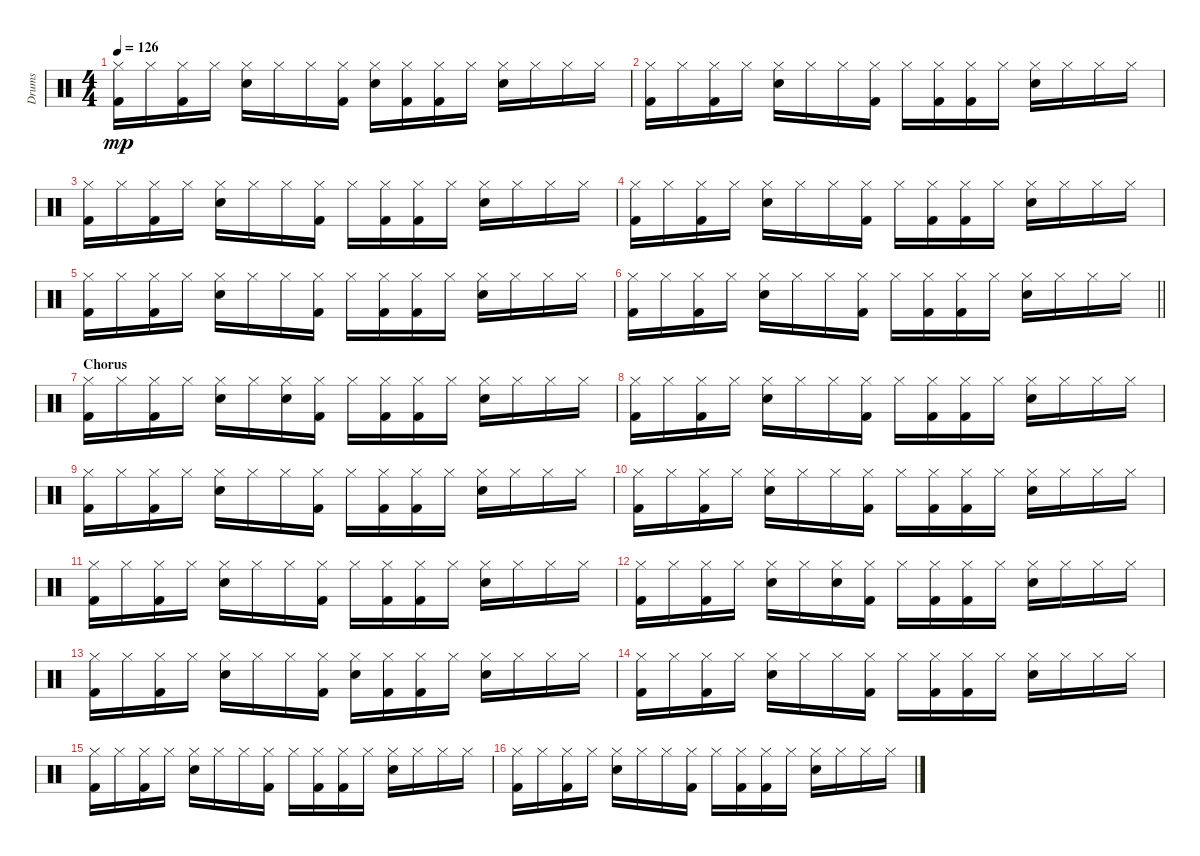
\track ("Drums" "Drums") {instrument percussion}
\staff {score}
\articulation defaults
\ts (4 4)
\tempo 126
\clef neutral
\ks c
("Hi-Hat (closed)" "Kick (hit) 2").16{dy mp} "Hi-Hat (closed)".16 ("Hi-Hat (closed)" "Kick (hit) 2").16 "Hi-Hat (closed)".16 ("Hi-Hat (closed)" "Snare (hit) 2").16 "Hi-Hat (closed)".16 "Hi-Hat (closed)".16 ("Hi-Hat (closed)" "Kick (hit) 2").16 ("Hi-Hat (closed)" "Snare (hit) 2").16 ("Hi-Hat (closed)" "Kick (hit) 2").16 ("Hi-Hat (closed)" "Kick (hit) 2").16 "Hi-Hat (closed)".16 ("Hi-Hat (closed)" "Snare (hit) 2").16 "Hi-Hat (closed)".16 "Hi-Hat (closed)".16 "Hi-Hat (closed)".16 |
("Hi-Hat (closed)" "Kick (hit) 2").16 "Hi-Hat (closed)".16 ("Hi-Hat (closed)" "Kick (hit) 2").16 "Hi-Hat (closed)".16 ("Hi-Hat (closed)" "Snare (hit) 2").16 "Hi-Hat (closed)".16 "Hi-Hat (closed)".16 ("Hi-Hat (closed)" "Kick (hit) 2").16 "Hi-Hat (closed)".16 ("Hi-Hat (closed)" "Kick (hit) 2").16 ("Hi-Hat (closed)" "Kick (hit) 2").16 "Hi-Hat (closed)".16 ("Hi-Hat (closed)" "Snare (hit) 2").16 "Hi-Hat (closed)".16 "Hi-Hat (closed)".16 "Hi-Hat (closed)".16 |
("Hi-Hat (closed)" "Kick (hit) 2").16 "Hi-Hat (closed)".16 ("Hi-Hat (closed)" "Kick (hit) 2").16 "Hi-Hat (closed)".16 ("Hi-Hat (closed)" "Snare (hit) 2").16 "Hi-Hat (closed)".16 "Hi-Hat (closed)".16 ("Hi-Hat (closed)" "Kick (hit) 2").16 "Hi-Hat (closed)".16 ("Hi-Hat (closed)" "Kick (hit) 2").16 ("Hi-Hat (closed)" "Kick (hit) 2").16 "Hi-Hat (closed)".16 ("Hi-Hat (closed)" "Snare (hit) 2").16 "Hi-Hat (closed)".16 "Hi-Hat (closed)".16 "Hi-Hat (closed)".16 |
("Hi-Hat (closed)" "Kick (hit) 2").16 "Hi-Hat (closed)".16 ("Hi-Hat (closed)" "Kick (hit) 2").16 "Hi-Hat (closed)".16 ("Hi-Hat (closed)" "Snare (hit) 2").16 "Hi-Hat (closed)".16 "Hi-Hat (closed)".16 ("Hi-Hat (closed)" "Kick (hit) 2").16 "Hi-Hat (closed)".16 ("Hi-Hat (closed)" "Kick (hit) 2").16 ("Hi-Hat (closed)" "Kick (hit) 2").16 "Hi-Hat (closed)".16 ("Hi-Hat (closed)" "Snare (hit) 2").16 "Hi-Hat (closed)".16 "Hi-Hat (closed)".16 "Hi-Hat (closed)".16 |
("Hi-Hat (closed)" "Kick (hit) 2").16 "Hi-Hat (closed)".16 ("Hi-Hat (closed)" "Kick (hit) 2").16 "Hi-Hat (closed)".16 ("Hi-Hat (closed)" "Snare (hit) 2").16 "Hi-Hat (closed)".16 "Hi-Hat (closed)".16 ("Hi-Hat (closed)" "Kick (hit) 2").16 "Hi-Hat (closed)".16 ("Hi-Hat (closed)" "Kick (hit) 2").16 ("Hi-Hat (closed)" "Kick (hit) 2").16 "Hi-Hat (closed)".16 ("Hi-Hat (closed)" "Snare (hit) 2").16 "Hi-Hat (closed)".16 "Hi-Hat (closed)".16 "Hi-Hat (closed)".16 |
\barLineRight lightlight
("Hi-Hat (closed)" "Kick (hit) 2").16 "Hi-Hat (closed)".16 ("Hi-Hat (closed)" "Kick (hit) 2").16 "Hi-Hat (closed)".16 ("Hi-Hat (closed)" "Snare (hit) 2").16 "Hi-Hat (closed)".16 "Hi-Hat (closed)".16 ("Hi-Hat (closed)" "Kick (hit) 2").16 "Hi-Hat (closed)".16 ("Hi-Hat (closed)" "Kick (hit) 2").16 ("Hi-Hat (closed)" "Kick (hit) 2").16 "Hi-Hat (closed)".16 ("Hi-Hat (closed)" "Snare (hit) 2").16 "Hi-Hat (closed)".16 "Hi-Hat (closed)".16 "Hi-Hat (closed)".16 |
\section ("" "Chorus")
("Hi-Hat (closed)" "Kick (hit) 2").16 "Hi-Hat (closed)".16 ("Hi-Hat (closed)" "Kick (hit) 2").16 "Hi-Hat (closed)".16 ("Hi-Hat (closed)" "Snare (hit) 2").16 "Hi-Hat (closed)".16 ("Hi-Hat (closed)" "Snare (hit) 2").16 ("Hi-Hat (closed)" "Kick (hit) 2").16 "Hi-Hat (closed)".16 ("Hi-Hat (closed)" "Kick (hit) 2").16 ("Hi-Hat (closed)" "Kick (hit) 2").16 "Hi-Hat (closed)".16 ("Hi-Hat (closed)" "Snare (hit) 2").16 "Hi-Hat (closed)".16 "Hi-Hat (closed)".16 "Hi-Hat (closed)".16 |
("Hi-Hat (closed)" "Kick (hit) 2").16 "Hi-Hat (closed)".16 ("Hi-Hat (closed)" "Kick (hit) 2").16 "Hi-Hat (closed)".16 ("Hi-Hat (closed)" "Snare (hit) 2").16 "Hi-Hat (closed)".16 "Hi-Hat (closed)".16 ("Hi-Hat (closed)" "Kick (hit) 2").16 "Hi-Hat (closed)".16 ("Hi-Hat (closed)" "Kick (hit) 2").16 ("Hi-Hat (closed)" "Kick (hit) 2").16 "Hi-Hat (closed)".16 ("Hi-Hat (closed)" "Snare (hit) 2").16 "Hi-Hat (closed)".16 "Hi-Hat (closed)".16 "Hi-Hat (closed)".16 |
("Hi-Hat (closed)" "Kick (hit) 2").16 "Hi-Hat (closed)".16 ("Hi-Hat (closed)" "Kick (hit) 2").16 "Hi-Hat (closed)".16 ("Hi-Hat (closed)" "Snare (hit) 2").16 "Hi-Hat (closed)".16 "Hi-Hat (closed)".16 ("Hi-Hat (closed)" "Kick (hit) 2").16 "Hi-Hat (closed)".16 ("Hi-Hat (closed)" "Kick (hit) 2").16 ("Hi-Hat (closed)" "Kick (hit) 2").16 "Hi-Hat (closed)".16 ("Hi-Hat (closed)" "Snare (hit) 2").16 "Hi-Hat (closed)".16 "Hi-Hat (closed)".16 "Hi-Hat (closed)".16 |
("Hi-Hat (closed)" "Kick (hit) 2").16 "Hi-Hat (closed)".16 ("Hi-Hat (closed)" "Kick (hit) 2").16 "Hi-Hat (closed)".16 ("Hi-Hat (closed)" "Snare (hit) 2").16 "Hi-Hat (closed)".16 "Hi-Hat (closed)".16 ("Hi-Hat (closed)" "Kick (hit) 2").16 "Hi-Hat (closed)".16 ("Hi-Hat (closed)" "Kick (hit) 2").16 ("Hi-Hat (closed)" "Kick (hit) 2").16 "Hi-Hat (closed)".16 ("Hi-Hat (closed)" "Snare (hit) 2").16 "Hi-Hat (closed)".16 "Hi-Hat (closed)".16 "Hi-Hat (closed)".16 |
("Hi-Hat (closed)" "Kick (hit) 2").16 "Hi-Hat (closed)".16 ("Hi-Hat (closed)" "Kick (hit) 2").16 "Hi-Hat (closed)".16 ("Hi-Hat (closed)" "Snare (hit) 2").16 "Hi-Hat (closed)".16 "Hi-Hat (closed)".16 ("Hi-Hat (closed)" "Kick (hit) 2").16 "Hi-Hat (closed)".16 ("Hi-Hat (closed)" "Kick (hit) 2").16 ("Hi-Hat (closed)" "Kick (hit) 2").16 "Hi-Hat (closed)".16 ("Hi-Hat (closed)" "Snare (hit) 2").16 "Hi-Hat (closed)".16 "Hi-Hat (closed)".16 "Hi-Hat (closed)".16 |
("Hi-Hat (closed)" "Kick (hit) 2").16 "Hi-Hat (closed)".16 ("Hi-Hat (closed)" "Kick (hit) 2").16 "Hi-Hat (closed)".16 ("Hi-Hat (closed)" "Snare (hit) 2").16 "Hi-Hat (closed)".16 ("Hi-Hat (closed)" "Snare (hit) 2").16 ("Hi-Hat (closed)" "Kick (hit) 2").16 "Hi-Hat (closed)".16 ("Hi-Hat (closed)" "Kick (hit) 2").16 ("Hi-Hat (closed)" "Kick (hit) 2").16 "Hi-Hat (closed)".16 ("Hi-Hat (closed)" "Snare (hit) 2").16 "Hi-Hat (closed)".16 "Hi-Hat (closed)".16 "Hi-Hat (closed)".16 |
("Hi-Hat (closed)" "Kick (hit) 2").16 "Hi-Hat (closed)".16 ("Hi-Hat (closed)" "Kick (hit) 2").16 "Hi-Hat (closed)".16 ("Hi-Hat (closed)" "Snare (hit) 2").16 "Hi-Hat (closed)".16 "Hi-Hat (closed)".16 ("Hi-Hat (closed)" "Kick (hit) 2").16 ("Hi-Hat (closed)" "Snare (hit) 2").16 ("Hi-Hat (closed)" "Kick (hit) 2").16 ("Hi-Hat (closed)" "Kick (hit) 2").16 "Hi-Hat (closed)".16 ("Hi-Hat (closed)" "Snare (hit) 2").16 "Hi-Hat (closed)".16 "Hi-Hat (closed)".16 "Hi-Hat (closed)".16 |
("Hi-Hat (closed)" "Kick (hit) 2").16 "Hi-Hat (closed)".16 ("Hi-Hat (closed)" "Kick (hit) 2").16 "Hi-Hat (closed)".16 ("Hi-Hat (closed)" "Snare (hit) 2").16 "Hi-Hat (closed)".16 "Hi-Hat (closed)".16 ("Hi-Hat (closed)" "Kick (hit) 2").16 "Hi-Hat (closed)".16 ("Hi-Hat (closed)" "Kick (hit) 2").16 ("Hi-Hat (closed)" "Kick (hit) 2").16 "Hi-Hat (closed)".16 ("Hi-Hat (closed)" "Snare (hit) 2").16 "Hi-Hat (closed)".16 "Hi-Hat (closed)".16 "Hi-Hat (closed)".16 |
("Hi-Hat (closed)" "Kick (hit) 2").16 "Hi-Hat (closed)".16 ("Hi-Hat (closed)" "Kick (hit) 2").16 "Hi-Hat (closed)".16 ("Hi-Hat (closed)" "Snare (hit) 2").16 "Hi-Hat (closed)".16 "Hi-Hat (closed)".16 ("Hi-Hat (closed)" "Kick (hit) 2").16 "Hi-Hat (closed)".16 ("Hi-Hat (closed)" "Kick (hit) 2").16 ("Hi-Hat (closed)" "Kick (hit) 2").16 "Hi-Hat (closed)".16 ("Hi-Hat (closed)" "Snare (hit) 2").16 "Hi-Hat (closed)".16 "Hi-Hat (closed)".16 "Hi-Hat (closed)".16 |
("Hi-Hat (closed)" "Kick (hit) 2").16 "Hi-Hat (closed)".16 ("Hi-Hat (closed)" "Kick (hit) 2").16 "Hi-Hat (closed)".16 ("Hi-Hat (closed)" "Snare (hit) 2").16 "Hi-Hat (closed)".16 "Hi-Hat (closed)".16 ("Hi-Hat (closed)" "Kick (hit) 2").16 "Hi-Hat (closed)".16 ("Hi-Hat (closed)" "Kick (hit) 2").16 ("Hi-Hat (closed)" "Kick (hit) 2").16 "Hi-Hat (closed)".16 ("Hi-Hat (closed)" "Snare (hit) 2").16 "Hi-Hat (closed)".16 "Hi-Hat (closed)".16 "Hi-Hat (closed)".16
